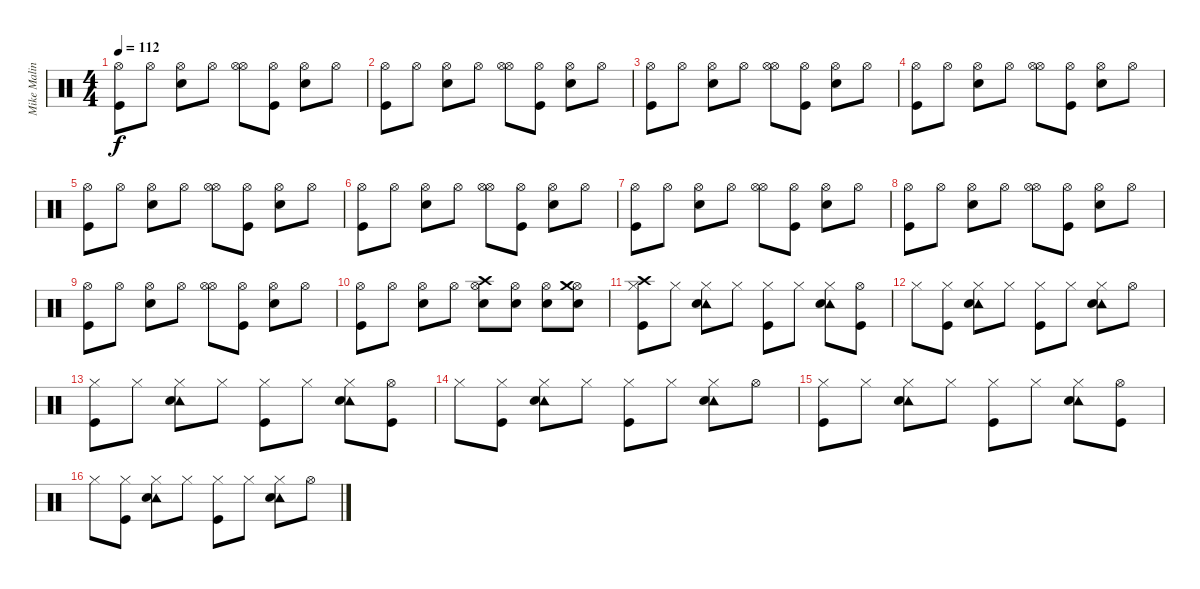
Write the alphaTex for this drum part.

\track ("Mike Malinin - Percussion" "Mike Malin") {instrument percussion}
\staff {score}
\articulation defaults
\ts (4 4)
\tempo 112
\clef neutral
\ks c
("Hi-Hat (open)" "Kick (hit)").8{dy f} "Hi-Hat (open)".8 ("Hi-Hat (open)" "Snare (hit) 2").8 "Hi-Hat (open)".8 ("Hi-Hat (open)" "Hi-Hat (open)").8 ("Hi-Hat (open)" "Kick (hit)").8 ("Hi-Hat (open)" "Snare (hit) 2").8 "Hi-Hat (open)".8 |
("Hi-Hat (open)" "Kick (hit)").8 "Hi-Hat (open)".8 ("Hi-Hat (open)" "Snare (hit) 2").8 "Hi-Hat (open)".8 ("Hi-Hat (open)" "Hi-Hat (open)").8 ("Hi-Hat (open)" "Kick (hit)").8 ("Hi-Hat (open)" "Snare (hit) 2").8 "Hi-Hat (open)".8 |
("Hi-Hat (open)" "Kick (hit)").8 "Hi-Hat (open)".8 ("Hi-Hat (open)" "Snare (hit) 2").8 "Hi-Hat (open)".8 ("Hi-Hat (open)" "Hi-Hat (open)").8 ("Hi-Hat (open)" "Kick (hit)").8 ("Hi-Hat (open)" "Snare (hit) 2").8 "Hi-Hat (open)".8 |
("Hi-Hat (open)" "Kick (hit)").8 "Hi-Hat (open)".8 ("Hi-Hat (open)" "Snare (hit) 2").8 "Hi-Hat (open)".8 ("Hi-Hat (open)" "Hi-Hat (open)").8 ("Hi-Hat (open)" "Kick (hit)").8 ("Hi-Hat (open)" "Snare (hit) 2").8 "Hi-Hat (open)".8 |
("Hi-Hat (open)" "Kick (hit)").8 "Hi-Hat (open)".8 ("Hi-Hat (open)" "Snare (hit) 2").8 "Hi-Hat (open)".8 ("Hi-Hat (open)" "Hi-Hat (open)").8 ("Hi-Hat (open)" "Kick (hit)").8 ("Hi-Hat (open)" "Snare (hit) 2").8 "Hi-Hat (open)".8 |
("Hi-Hat (open)" "Kick (hit)").8 "Hi-Hat (open)".8 ("Hi-Hat (open)" "Snare (hit) 2").8 "Hi-Hat (open)".8 ("Hi-Hat (open)" "Hi-Hat (open)").8 ("Hi-Hat (open)" "Kick (hit)").8 ("Hi-Hat (open)" "Snare (hit) 2").8 "Hi-Hat (open)".8 |
("Hi-Hat (open)" "Kick (hit)").8 "Hi-Hat (open)".8 ("Hi-Hat (open)" "Snare (hit) 2").8 "Hi-Hat (open)".8 ("Hi-Hat (open)" "Hi-Hat (open)").8 ("Hi-Hat (open)" "Kick (hit)").8 ("Hi-Hat (open)" "Snare (hit) 2").8 "Hi-Hat (open)".8 |
("Hi-Hat (open)" "Kick (hit)").8 "Hi-Hat (open)".8 ("Hi-Hat (open)" "Snare (hit) 2").8 "Hi-Hat (open)".8 ("Hi-Hat (open)" "Hi-Hat (open)").8 ("Hi-Hat (open)" "Kick (hit)").8 ("Hi-Hat (open)" "Snare (hit) 2").8 "Hi-Hat (open)".8 |
("Hi-Hat (open)" "Kick (hit)").8 "Hi-Hat (open)".8 ("Hi-Hat (open)" "Snare (hit) 2").8 "Hi-Hat (open)".8 ("Hi-Hat (open)" "Hi-Hat (open)").8 ("Hi-Hat (open)" "Kick (hit)").8 ("Hi-Hat (open)" "Snare (hit) 2").8 "Hi-Hat (open)".8 |
("Hi-Hat (open)" "Kick (hit)").8 "Hi-Hat (open)".8 ("Hi-Hat (open)" "Snare (hit) 2").8 "Hi-Hat (open)".8 ("Hi-Hat (open)" "Crash high (hit)" "Snare (hit) 2").8 ("Hi-Hat (open)" "Snare (hit) 2").8 ("Hi-Hat (open)" "Snare (hit) 2").8 ("Hi-Hat (open)" "Crash medium (hit)" "Snare (hit) 2").8 |
("Hi-Hat (closed)" "Crash high (hit)" "Kick (hit)").8 "Hi-Hat (closed)".8 ("Hi-Hat (closed)" "Tambourine (hit)" "Snare (hit) 2").8 "Hi-Hat (closed)".8 ("Hi-Hat (closed)" "Kick (hit)").8 "Hi-Hat (closed)".8 ("Hi-Hat (closed)" "Tambourine (hit)" "Snare (hit) 2").8 ("Hi-Hat (open)" "Kick (hit)").8 |
"Hi-Hat (closed)".8 ("Hi-Hat (closed)" "Kick (hit)").8 ("Hi-Hat (closed)" "Tambourine (hit)" "Snare (hit) 2").8 "Hi-Hat (closed)".8 ("Hi-Hat (closed)" "Kick (hit)").8 "Hi-Hat (closed)".8 ("Hi-Hat (closed)" "Tambourine (hit)" "Snare (hit) 2").8 "Hi-Hat (open)".8 |
("Hi-Hat (closed)" "Kick (hit)").8 "Hi-Hat (closed)".8 ("Hi-Hat (closed)" "Tambourine (hit)" "Snare (hit) 2").8 "Hi-Hat (closed)".8 ("Hi-Hat (closed)" "Kick (hit)").8 "Hi-Hat (closed)".8 ("Hi-Hat (closed)" "Tambourine (hit)" "Snare (hit) 2").8 ("Hi-Hat (open)" "Kick (hit)").8 |
"Hi-Hat (closed)".8 ("Hi-Hat (closed)" "Kick (hit)").8 ("Hi-Hat (closed)" "Tambourine (hit)" "Snare (hit) 2").8 "Hi-Hat (closed)".8 ("Hi-Hat (closed)" "Kick (hit)").8 "Hi-Hat (closed)".8 ("Hi-Hat (closed)" "Tambourine (hit)" "Snare (hit) 2").8 "Hi-Hat (open)".8 |
("Hi-Hat (closed)" "Kick (hit)").8 "Hi-Hat (closed)".8 ("Hi-Hat (closed)" "Tambourine (hit)" "Snare (hit) 2").8 "Hi-Hat (closed)".8 ("Hi-Hat (closed)" "Kick (hit)").8 "Hi-Hat (closed)".8 ("Hi-Hat (closed)" "Tambourine (hit)" "Snare (hit) 2").8 ("Hi-Hat (open)" "Kick (hit)").8 |
"Hi-Hat (closed)".8 ("Hi-Hat (closed)" "Kick (hit)").8 ("Hi-Hat (closed)" "Tambourine (hit)" "Snare (hit) 2").8 "Hi-Hat (closed)".8 ("Hi-Hat (closed)" "Kick (hit)").8 "Hi-Hat (closed)".8 ("Hi-Hat (closed)" "Tambourine (hit)" "Snare (hit) 2").8 "Hi-Hat (open)".8
